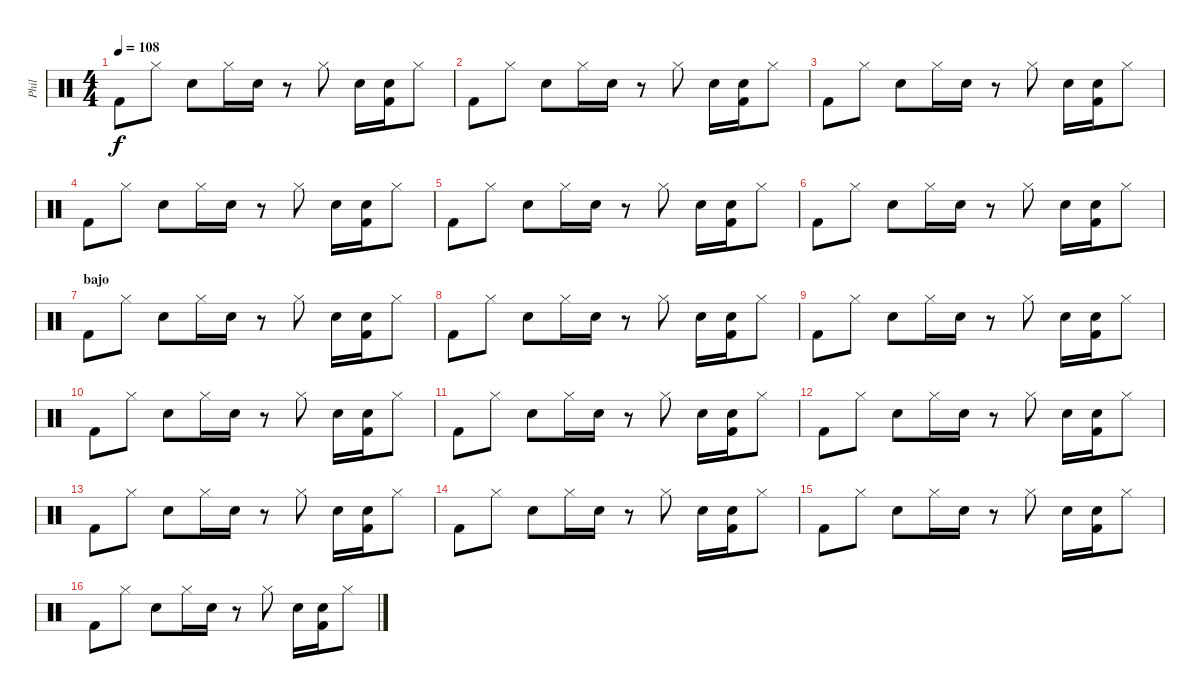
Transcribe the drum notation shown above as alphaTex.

\track ("Phil" "Phil") {instrument percussion}
\staff {score}
\articulation defaults
\ts (4 4)
\tempo 108
\clef neutral
\ks c "Kick (hit) 2".8{dy f} "Hi-Hat (closed)".8 "Electric Snare (hit)".8 "Hi-Hat (closed)".16 "Electric Snare (hit)".16
r.8 "Hi-Hat (closed)".8 "Electric Snare (hit)".16 ("Electric Snare (hit)" "Kick (hit) 2").16 "Hi-Hat (closed)".8 |
"Kick (hit) 2".8 "Hi-Hat (closed)".8 "Electric Snare (hit)".8 "Hi-Hat (closed)".16 "Electric Snare (hit)".16 r.8 "Hi-Hat (closed)".8 "Electric Snare (hit)".16 ("Electric Snare (hit)" "Kick (hit) 2").16 "Hi-Hat (closed)".8 |
"Kick (hit) 2".8 "Hi-Hat (closed)".8 "Electric Snare (hit)".8 "Hi-Hat (closed)".16 "Electric Snare (hit)".16 r.8 "Hi-Hat (closed)".8 "Electric Snare (hit)".16 ("Electric Snare (hit)" "Kick (hit) 2").16 "Hi-Hat (closed)".8 |
"Kick (hit) 2".8 "Hi-Hat (closed)".8 "Electric Snare (hit)".8 "Hi-Hat (closed)".16 "Electric Snare (hit)".16 r.8 "Hi-Hat (closed)".8 "Electric Snare (hit)".16 ("Electric Snare (hit)" "Kick (hit) 2").16 "Hi-Hat (closed)".8 |
"Kick (hit) 2".8 "Hi-Hat (closed)".8 "Electric Snare (hit)".8 "Hi-Hat (closed)".16 "Electric Snare (hit)".16 r.8 "Hi-Hat (closed)".8 "Electric Snare (hit)".16 ("Electric Snare (hit)" "Kick (hit) 2").16 "Hi-Hat (closed)".8 |
"Kick (hit) 2".8 "Hi-Hat (closed)".8 "Electric Snare (hit)".8 "Hi-Hat (closed)".16 "Electric Snare (hit)".16 r.8 "Hi-Hat (closed)".8 "Electric Snare (hit)".16 ("Electric Snare (hit)" "Kick (hit) 2").16 "Hi-Hat (closed)".8 |
\section ("" "bajo")
"Kick (hit) 2".8 "Hi-Hat (closed)".8 "Electric Snare (hit)".8 "Hi-Hat (closed)".16 "Electric Snare (hit)".16 r.8 "Hi-Hat (closed)".8 "Electric Snare (hit)".16 ("Electric Snare (hit)" "Kick (hit) 2").16 "Hi-Hat (closed)".8 |
"Kick (hit) 2".8 "Hi-Hat (closed)".8 "Electric Snare (hit)".8 "Hi-Hat (closed)".16 "Electric Snare (hit)".16 r.8 "Hi-Hat (closed)".8 "Electric Snare (hit)".16 ("Electric Snare (hit)" "Kick (hit) 2").16 "Hi-Hat (closed)".8 |
"Kick (hit) 2".8 "Hi-Hat (closed)".8 "Electric Snare (hit)".8 "Hi-Hat (closed)".16 "Electric Snare (hit)".16 r.8 "Hi-Hat (closed)".8 "Electric Snare (hit)".16 ("Electric Snare (hit)" "Kick (hit) 2").16 "Hi-Hat (closed)".8 |
"Kick (hit) 2".8 "Hi-Hat (closed)".8 "Electric Snare (hit)".8 "Hi-Hat (closed)".16 "Electric Snare (hit)".16 r.8 "Hi-Hat (closed)".8 "Electric Snare (hit)".16 ("Electric Snare (hit)" "Kick (hit) 2").16 "Hi-Hat (closed)".8 |
"Kick (hit) 2".8 "Hi-Hat (closed)".8 "Electric Snare (hit)".8 "Hi-Hat (closed)".16 "Electric Snare (hit)".16 r.8 "Hi-Hat (closed)".8 "Electric Snare (hit)".16 ("Electric Snare (hit)" "Kick (hit) 2").16 "Hi-Hat (closed)".8 |
"Kick (hit) 2".8 "Hi-Hat (closed)".8 "Electric Snare (hit)".8 "Hi-Hat (closed)".16 "Electric Snare (hit)".16 r.8 "Hi-Hat (closed)".8 "Electric Snare (hit)".16 ("Electric Snare (hit)" "Kick (hit) 2").16 "Hi-Hat (closed)".8 |
"Kick (hit) 2".8 "Hi-Hat (closed)".8 "Electric Snare (hit)".8 "Hi-Hat (closed)".16 "Electric Snare (hit)".16 r.8 "Hi-Hat (closed)".8 "Electric Snare (hit)".16 ("Electric Snare (hit)" "Kick (hit) 2").16 "Hi-Hat (closed)".8 |
"Kick (hit) 2".8 "Hi-Hat (closed)".8 "Electric Snare (hit)".8 "Hi-Hat (closed)".16 "Electric Snare (hit)".16 r.8 "Hi-Hat (closed)".8 "Electric Snare (hit)".16 ("Electric Snare (hit)" "Kick (hit) 2").16 "Hi-Hat (closed)".8 |
"Kick (hit) 2".8 "Hi-Hat (closed)".8 "Electric Snare (hit)".8 "Hi-Hat (closed)".16 "Electric Snare (hit)".16 r.8 "Hi-Hat (closed)".8 "Electric Snare (hit)".16 ("Electric Snare (hit)" "Kick (hit) 2").16 "Hi-Hat (closed)".8 |
"Kick (hit) 2".8 "Hi-Hat (closed)".8 "Electric Snare (hit)".8 "Hi-Hat (closed)".16 "Electric Snare (hit)".16 r.8 "Hi-Hat (closed)".8 "Electric Snare (hit)".16 ("Electric Snare (hit)" "Kick (hit) 2").16 "Hi-Hat (closed)".8
